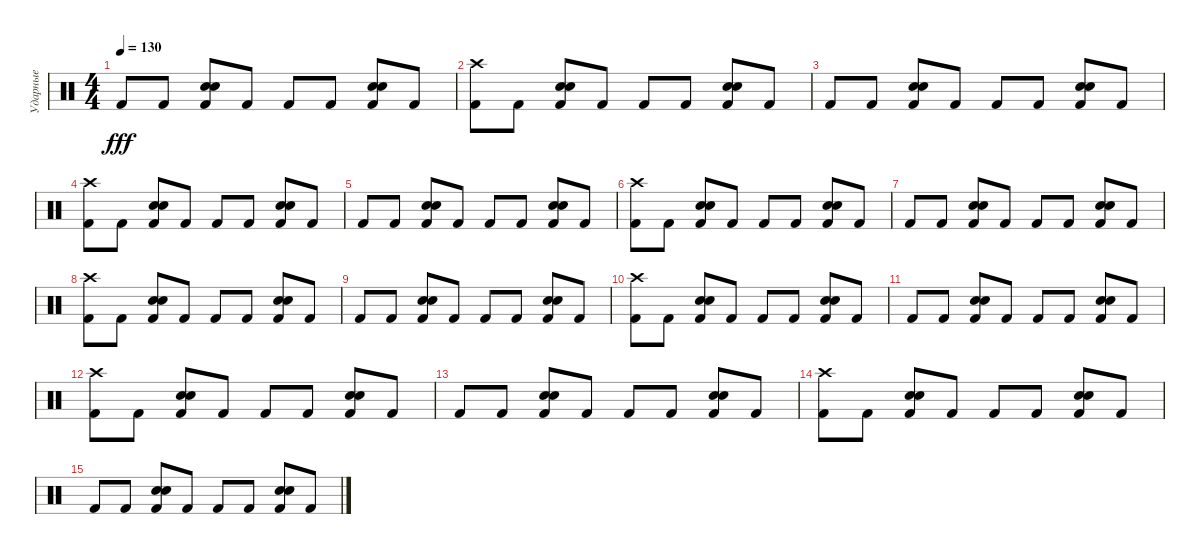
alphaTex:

\track ("Ударные" "Ударные") {instrument percussion}
\staff {score}
\articulation defaults
\ts (4 4)
\tempo 130
\clef neutral
\ks c "Kick (hit) 2".8{dy fff} "Kick (hit) 2".8
("Snare (hit) 2" "Snare (hit) 2" "Kick (hit) 2").8 "Kick (hit) 2".8 "Kick (hit) 2".8 "Kick (hit) 2".8 ("Snare (hit) 2" "Snare (hit) 2" "Kick (hit) 2").8 "Kick (hit) 2".8 |
("Crash high (hit)" "Kick (hit) 2").8 "Kick (hit) 2".8 ("Snare (hit) 2" "Snare (hit) 2" "Kick (hit) 2").8 "Kick (hit) 2".8 "Kick (hit) 2".8 "Kick (hit) 2".8 ("Snare (hit) 2" "Snare (hit) 2" "Kick (hit) 2").8 "Kick (hit) 2".8 |
"Kick (hit) 2".8 "Kick (hit) 2".8 ("Snare (hit) 2" "Snare (hit) 2" "Kick (hit) 2").8 "Kick (hit) 2".8 "Kick (hit) 2".8 "Kick (hit) 2".8 ("Snare (hit) 2" "Snare (hit) 2" "Kick (hit) 2").8 "Kick (hit) 2".8 |
("Crash high (hit)" "Kick (hit) 2").8 "Kick (hit) 2".8 ("Snare (hit) 2" "Snare (hit) 2" "Kick (hit) 2").8 "Kick (hit) 2".8 "Kick (hit) 2".8 "Kick (hit) 2".8 ("Snare (hit) 2" "Snare (hit) 2" "Kick (hit) 2").8 "Kick (hit) 2".8 |
"Kick (hit) 2".8 "Kick (hit) 2".8 ("Snare (hit) 2" "Snare (hit) 2" "Kick (hit) 2").8 "Kick (hit) 2".8 "Kick (hit) 2".8 "Kick (hit) 2".8 ("Snare (hit) 2" "Snare (hit) 2" "Kick (hit) 2").8 "Kick (hit) 2".8 |
("Crash high (hit)" "Kick (hit) 2").8 "Kick (hit) 2".8 ("Snare (hit) 2" "Snare (hit) 2" "Kick (hit) 2").8 "Kick (hit) 2".8 "Kick (hit) 2".8 "Kick (hit) 2".8 ("Snare (hit) 2" "Snare (hit) 2" "Kick (hit) 2").8 "Kick (hit) 2".8 |
"Kick (hit) 2".8 "Kick (hit) 2".8 ("Snare (hit) 2" "Snare (hit) 2" "Kick (hit) 2").8 "Kick (hit) 2".8 "Kick (hit) 2".8 "Kick (hit) 2".8 ("Snare (hit) 2" "Snare (hit) 2" "Kick (hit) 2").8 "Kick (hit) 2".8 |
("Crash high (hit)" "Kick (hit) 2").8 "Kick (hit) 2".8 ("Snare (hit) 2" "Snare (hit) 2" "Kick (hit) 2").8 "Kick (hit) 2".8 "Kick (hit) 2".8 "Kick (hit) 2".8 ("Snare (hit) 2" "Snare (hit) 2" "Kick (hit) 2").8 "Kick (hit) 2".8 |
"Kick (hit) 2".8 "Kick (hit) 2".8 ("Snare (hit) 2" "Snare (hit) 2" "Kick (hit) 2").8 "Kick (hit) 2".8 "Kick (hit) 2".8 "Kick (hit) 2".8 ("Snare (hit) 2" "Snare (hit) 2" "Kick (hit) 2").8 "Kick (hit) 2".8 |
("Crash high (hit)" "Kick (hit) 2").8 "Kick (hit) 2".8 ("Snare (hit) 2" "Snare (hit) 2" "Kick (hit) 2").8 "Kick (hit) 2".8 "Kick (hit) 2".8 "Kick (hit) 2".8 ("Snare (hit) 2" "Snare (hit) 2" "Kick (hit) 2").8 "Kick (hit) 2".8 |
"Kick (hit) 2".8 "Kick (hit) 2".8 ("Snare (hit) 2" "Snare (hit) 2" "Kick (hit) 2").8 "Kick (hit) 2".8 "Kick (hit) 2".8 "Kick (hit) 2".8 ("Snare (hit) 2" "Snare (hit) 2" "Kick (hit) 2").8 "Kick (hit) 2".8 |
("Crash high (hit)" "Kick (hit) 2").8 "Kick (hit) 2".8 ("Snare (hit) 2" "Snare (hit) 2" "Kick (hit) 2").8 "Kick (hit) 2".8 "Kick (hit) 2".8 "Kick (hit) 2".8 ("Snare (hit) 2" "Snare (hit) 2" "Kick (hit) 2").8 "Kick (hit) 2".8 |
"Kick (hit) 2".8 "Kick (hit) 2".8 ("Snare (hit) 2" "Snare (hit) 2" "Kick (hit) 2").8 "Kick (hit) 2".8 "Kick (hit) 2".8 "Kick (hit) 2".8 ("Snare (hit) 2" "Snare (hit) 2" "Kick (hit) 2").8 "Kick (hit) 2".8 |
("Crash high (hit)" "Kick (hit) 2").8 "Kick (hit) 2".8 ("Snare (hit) 2" "Snare (hit) 2" "Kick (hit) 2").8 "Kick (hit) 2".8 "Kick (hit) 2".8 "Kick (hit) 2".8 ("Snare (hit) 2" "Snare (hit) 2" "Kick (hit) 2").8 "Kick (hit) 2".8 |
"Kick (hit) 2".8 "Kick (hit) 2".8 ("Snare (hit) 2" "Snare (hit) 2" "Kick (hit) 2").8 "Kick (hit) 2".8 "Kick (hit) 2".8 "Kick (hit) 2".8 ("Snare (hit) 2" "Snare (hit) 2" "Kick (hit) 2").8 "Kick (hit) 2".8
